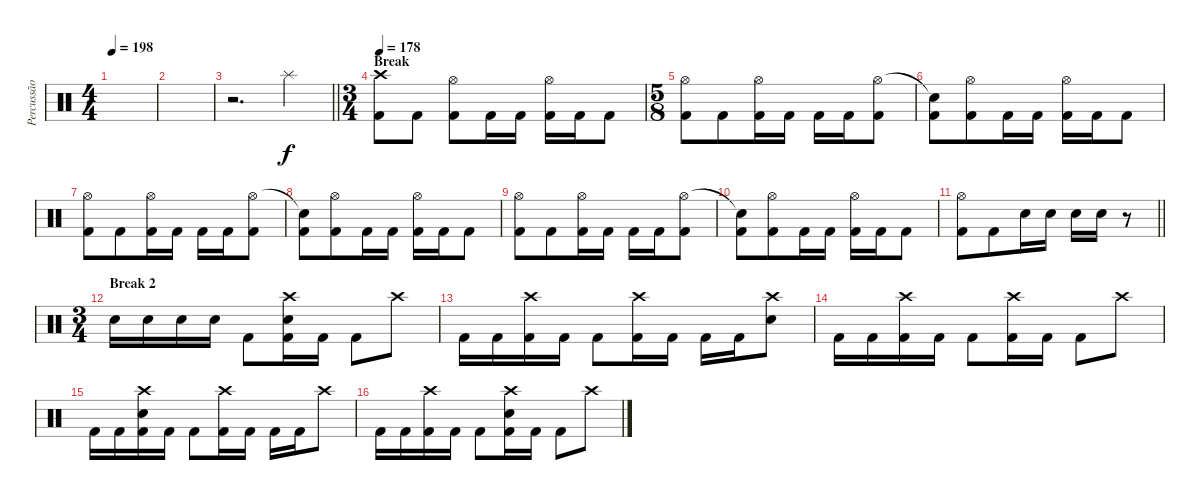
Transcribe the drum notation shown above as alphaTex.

\track ("Percussão" "Percussão") {instrument percussion}
\staff {score}
\articulation defaults
\ts (4 4)
\tempo 198
\clef neutral
\ks c
|
|
\barLineRight lightlight
r.2{d} "Splash (hit)".4{dy f} |
\ts (3 4)
\section ("" "Break")
\tempo 178
("Crash high (hit)" "Kick (hit) 2").8 "Kick (hit) 2".8 ("Hi-Hat (open)" "Kick (hit) 2").8 "Kick (hit) 2".16 "Kick (hit) 2".16 ("Hi-Hat (open)" "Kick (hit) 2").16 "Kick (hit) 2".16 "Kick (hit) 2".8 |
\ts (5 8)
("Hi-Hat (open)" "Kick (hit) 2").8 "Kick (hit) 2".8 ("Hi-Hat (open)" "Kick (hit) 2").16 "Kick (hit) 2".16 "Kick (hit) 2".16 "Kick (hit) 2".16 ("Hi-Hat (open)" "Kick (hit) 2").8 |
("Snare (hit)"{t} "Kick (hit) 2").8 ("Hi-Hat (open)" "Kick (hit) 2").8 "Kick (hit) 2".16 "Kick (hit) 2".16 ("Hi-Hat (open)" "Kick (hit) 2").16 "Kick (hit) 2".16 "Kick (hit) 2".8 |
("Hi-Hat (open)" "Kick (hit) 2").8 "Kick (hit) 2".8 ("Hi-Hat (open)" "Kick (hit) 2").16 "Kick (hit) 2".16 "Kick (hit) 2".16 "Kick (hit) 2".16 ("Hi-Hat (open)" "Kick (hit) 2").8 |
("Snare (hit)"{t} "Kick (hit) 2").8 ("Hi-Hat (open)" "Kick (hit) 2").8 "Kick (hit) 2".16 "Kick (hit) 2".16 ("Hi-Hat (open)" "Kick (hit) 2").16 "Kick (hit) 2".16 "Kick (hit) 2".8 |
("Hi-Hat (open)" "Kick (hit) 2").8 "Kick (hit) 2".8 ("Hi-Hat (open)" "Kick (hit) 2").16 "Kick (hit) 2".16 "Kick (hit) 2".16 "Kick (hit) 2".16 ("Hi-Hat (open)" "Kick (hit) 2").8 |
("Snare (hit)"{t} "Kick (hit) 2").8 ("Hi-Hat (open)" "Kick (hit) 2").8 "Kick (hit) 2".16 "Kick (hit) 2".16 ("Hi-Hat (open)" "Kick (hit) 2").16 "Kick (hit) 2".16 "Kick (hit) 2".8 |
\barLineRight lightlight
("Hi-Hat (open)" "Kick (hit) 2").8 "Kick (hit) 2".8 "Snare (hit) 2".16 "Snare (hit) 2".16 "Snare (hit) 2".16 "Snare (hit) 2".16 r.8 |
\ts (3 4)
\section ("" "Break 2")
"Snare (hit) 2".16 "Snare (hit) 2".16 "Snare (hit) 2".16 "Snare (hit) 2".16 "Kick (hit) 2".8 ("Crash high (hit)" "Snare (hit) 2" "Kick (hit) 2").16 "Kick (hit) 2".16 "Kick (hit) 2".8 "Crash high (hit)".8 |
"Kick (hit) 2".16 "Kick (hit) 2".16 ("Crash high (hit)" "Kick (hit) 2").16 "Kick (hit) 2".16 "Kick (hit) 2".8 ("Crash high (hit)" "Kick (hit) 2").16 "Kick (hit) 2".16 "Kick (hit) 2".16 "Kick (hit) 2".16 ("Crash high (hit)" "Snare (hit) 2").8 |
"Kick (hit) 2".16 "Kick (hit) 2".16 ("Crash high (hit)" "Kick (hit) 2").16 "Kick (hit) 2".16 "Kick (hit) 2".8 ("Crash high (hit)" "Kick (hit) 2").16 "Kick (hit) 2".16 "Kick (hit) 2".8 "Crash high (hit)".8 |
"Kick (hit) 2".16 "Kick (hit) 2".16 ("Crash high (hit)" "Snare (hit) 2" "Kick (hit) 2").16 "Kick (hit) 2".16 "Kick (hit) 2".8 ("Crash high (hit)" "Kick (hit) 2").16 "Kick (hit) 2".16 "Kick (hit) 2".16 "Kick (hit) 2".16 "Crash high (hit)".8 |
"Kick (hit) 2".16 "Kick (hit) 2".16 ("Crash high (hit)" "Kick (hit) 2").16 "Kick (hit) 2".16 "Kick (hit) 2".8 ("Crash high (hit)" "Snare (hit) 2" "Kick (hit) 2").16 "Kick (hit) 2".16 "Kick (hit) 2".8 "Crash high (hit)".8
